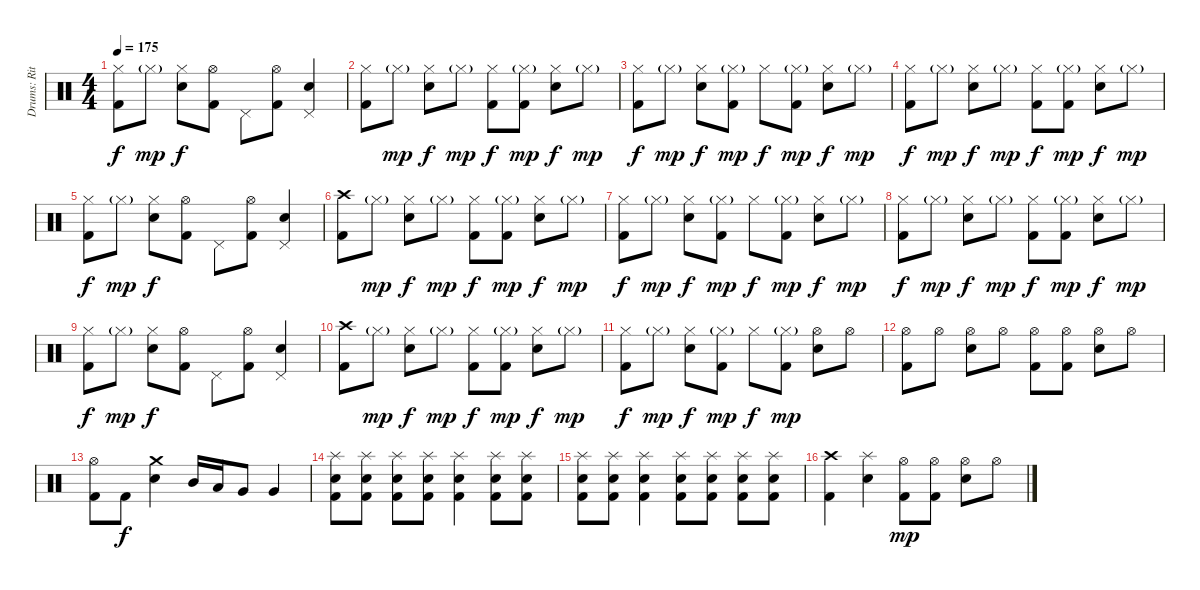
\track ("Drums: Ritsu Tainaka" "Drums: Rit") {instrument percussion}
\staff {score}
\articulation defaults
\ts (4 4)
\tempo 175
\clef neutral
\ks c
("Hi-Hat (closed)" "Kick (hit) 2").8{dy f} "Hi-Hat (closed)"{g}.8{dy mp} ("Hi-Hat (closed)" "Snare (hit) 2").8{dy f} ("Hi-Hat (open)" "Kick (hit) 2").8 "Pedal Hi-Hat (hit)".8 ("Hi-Hat (open)" "Kick (hit) 2").8 ("Pedal Hi-Hat (hit)" "Snare (hit) 2").4 |
("Hi-Hat (closed)" "Kick (hit) 2").8 "Hi-Hat (closed)"{g}.8{dy mp} ("Hi-Hat (closed)" "Snare (hit) 2").8{dy f} "Hi-Hat (closed)"{g}.8{dy mp} ("Hi-Hat (closed)" "Kick (hit) 2").8{dy f} ("Hi-Hat (closed)"{g} "Kick (hit) 2").8{dy mp} ("Hi-Hat (closed)" "Snare (hit) 2").8{dy f} "Hi-Hat (closed)"{g}.8{dy mp} |
("Hi-Hat (closed)" "Kick (hit) 2").8{dy f} "Hi-Hat (closed)"{g}.8{dy mp} ("Hi-Hat (closed)" "Snare (hit) 2").8{dy f} ("Hi-Hat (closed)"{g} "Kick (hit) 2").8{dy mp} "Hi-Hat (closed)".8{dy f} ("Hi-Hat (closed)"{g} "Kick (hit) 2").8{dy mp} ("Hi-Hat (closed)" "Snare (hit) 2").8{dy f} "Hi-Hat (closed)"{g}.8{dy mp} |
("Hi-Hat (closed)" "Kick (hit) 2").8{dy f} "Hi-Hat (closed)"{g}.8{dy mp} ("Hi-Hat (closed)" "Snare (hit) 2").8{dy f} "Hi-Hat (closed)"{g}.8{dy mp} ("Hi-Hat (closed)" "Kick (hit) 2").8{dy f} ("Hi-Hat (closed)"{g} "Kick (hit) 2").8{dy mp} ("Hi-Hat (closed)" "Snare (hit) 2").8{dy f} "Hi-Hat (closed)"{g}.8{dy mp} |
("Hi-Hat (closed)" "Kick (hit) 2").8{dy f} "Hi-Hat (closed)"{g}.8{dy mp} ("Hi-Hat (closed)" "Snare (hit) 2").8{dy f} ("Hi-Hat (open)" "Kick (hit) 2").8 "Pedal Hi-Hat (hit)".8 ("Hi-Hat (open)" "Kick (hit) 2").8 ("Pedal Hi-Hat (hit)" "Snare (hit) 2").4 |
("Crash high (hit)" "Kick (hit) 2").8 "Hi-Hat (closed)"{g}.8{dy mp} ("Hi-Hat (closed)" "Snare (hit) 2").8{dy f} "Hi-Hat (closed)"{g}.8{dy mp} ("Hi-Hat (closed)" "Kick (hit) 2").8{dy f} ("Hi-Hat (closed)"{g} "Kick (hit) 2").8{dy mp} ("Hi-Hat (closed)" "Snare (hit) 2").8{dy f} "Hi-Hat (closed)"{g}.8{dy mp} |
("Hi-Hat (closed)" "Kick (hit) 2").8{dy f} "Hi-Hat (closed)"{g}.8{dy mp} ("Hi-Hat (closed)" "Snare (hit) 2").8{dy f} ("Hi-Hat (closed)"{g} "Kick (hit) 2").8{dy mp} "Hi-Hat (closed)".8{dy f} ("Hi-Hat (closed)"{g} "Kick (hit) 2").8{dy mp} ("Hi-Hat (closed)" "Snare (hit) 2").8{dy f} "Hi-Hat (closed)"{g}.8{dy mp} |
("Hi-Hat (closed)" "Kick (hit) 2").8{dy f} "Hi-Hat (closed)"{g}.8{dy mp} ("Hi-Hat (closed)" "Snare (hit) 2").8{dy f} "Hi-Hat (closed)"{g}.8{dy mp} ("Hi-Hat (closed)" "Kick (hit) 2").8{dy f} ("Hi-Hat (closed)"{g} "Kick (hit) 2").8{dy mp} ("Hi-Hat (closed)" "Snare (hit) 2").8{dy f} "Hi-Hat (closed)"{g}.8{dy mp} |
("Hi-Hat (closed)" "Kick (hit) 2").8{dy f} "Hi-Hat (closed)"{g}.8{dy mp} ("Hi-Hat (closed)" "Snare (hit) 2").8{dy f} ("Hi-Hat (open)" "Kick (hit) 2").8 "Pedal Hi-Hat (hit)".8 ("Hi-Hat (open)" "Kick (hit) 2").8 ("Pedal Hi-Hat (hit)" "Snare (hit) 2").4 |
("Crash high (hit)" "Kick (hit) 2").8 "Hi-Hat (closed)"{g}.8{dy mp} ("Hi-Hat (closed)" "Snare (hit) 2").8{dy f} "Hi-Hat (closed)"{g}.8{dy mp} ("Hi-Hat (closed)" "Kick (hit) 2").8{dy f} ("Hi-Hat (closed)"{g} "Kick (hit) 2").8{dy mp} ("Hi-Hat (closed)" "Snare (hit) 2").8{dy f} "Hi-Hat (closed)"{g}.8{dy mp} |
("Hi-Hat (closed)" "Kick (hit) 2").8{dy f} "Hi-Hat (closed)"{g}.8{dy mp} ("Hi-Hat (closed)" "Snare (hit) 2").8{dy f} ("Hi-Hat (closed)"{g} "Kick (hit) 2").8{dy mp} "Hi-Hat (closed)".8{dy f} ("Hi-Hat (closed)"{g} "Kick (hit) 2").8{dy mp} ("Hi-Hat (open)" "Snare (hit) 2").8 "Hi-Hat (open)".8 |
("Hi-Hat (open)" "Kick (hit) 2").8 "Hi-Hat (open)".8 ("Hi-Hat (open)" "Snare (hit) 2").8 "Hi-Hat (open)".8 ("Hi-Hat (open)" "Kick (hit) 2").8 ("Hi-Hat (open)" "Kick (hit) 2").8 ("Hi-Hat (open)" "Snare (hit) 2").8 "Hi-Hat (open)".8 |
("Hi-Hat (open)" "Kick (hit) 2").8 "Kick (hit) 2".8{dy f} ("Crash medium (hit)" "Snare (hit) 2").4 "Mid Tom (hit)".16 "Low Tom (hit)".16 "Very Low Tom (hit)".8 "Very Low Tom (hit)".4 |
("Splash (hit)" "Snare (hit) 2" "Kick (hit) 2").8 ("Splash (hit)" "Snare (hit) 2" "Kick (hit) 2").8 ("Splash (hit)" "Snare (hit) 2" "Kick (hit) 2").8 ("Splash (hit)" "Snare (hit) 2" "Kick (hit) 2").8 ("Splash (hit)" "Snare (hit) 2" "Kick (hit) 2").4 ("Splash (hit)" "Snare (hit) 2" "Kick (hit) 2").8 ("Splash (hit)" "Snare (hit) 2" "Kick (hit) 2").8 |
("Splash (hit)" "Snare (hit) 2" "Kick (hit) 2").8 ("Splash (hit)" "Snare (hit) 2" "Kick (hit) 2").8 ("Splash (hit)" "Snare (hit) 2" "Kick (hit) 2").4 ("Splash (hit)" "Snare (hit) 2" "Kick (hit) 2").8 ("Splash (hit)" "Snare (hit) 2" "Kick (hit) 2").8 ("Splash (hit)" "Snare (hit) 2" "Kick (hit) 2").8 ("Splash (hit)" "Snare (hit) 2" "Kick (hit) 2").8 |
("Crash high (hit)" "Kick (hit) 2").4 ("Splash (hit)" "Snare (hit) 2").4 ("Hi-Hat (open)" "Kick (hit) 2").8{dy mp} ("Hi-Hat (open)" "Kick (hit) 2").8 ("Hi-Hat (open)" "Snare (hit) 2").8 "Hi-Hat (open)".8
